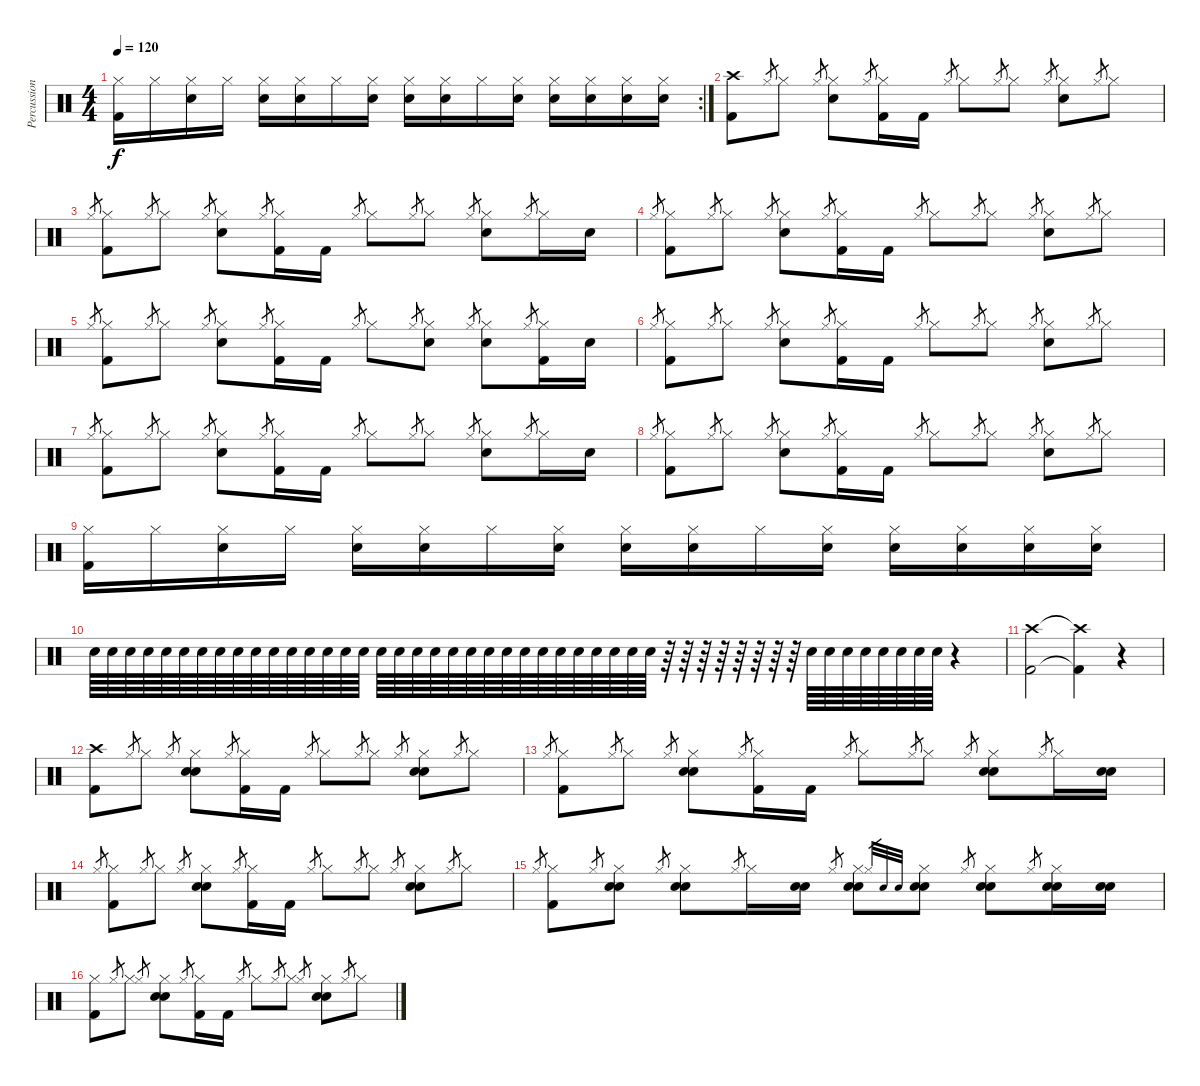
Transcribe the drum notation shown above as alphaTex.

\track ("Percussion" "Percussion") {instrument percussion}
\staff {score}
\articulation defaults
\rc 2
\ts (4 4)
\tempo 120
\clef neutral
\ks c
("Hi-Hat (closed)" "Kick (hit) 2").16{dy f} "Hi-Hat (closed)".16 ("Hi-Hat (closed)" "Snare (hit) 2").16 "Hi-Hat (closed)".16 ("Hi-Hat (closed)" "Snare (hit) 2").16 ("Hi-Hat (closed)" "Snare (hit) 2").16 "Hi-Hat (closed)".16 ("Hi-Hat (closed)" "Snare (hit) 2").16 ("Hi-Hat (closed)" "Snare (hit) 2").16 ("Hi-Hat (closed)" "Snare (hit) 2").16 "Hi-Hat (closed)".16 ("Hi-Hat (closed)" "Snare (hit) 2").16 ("Hi-Hat (closed)" "Snare (hit) 2").16 ("Hi-Hat (closed)" "Snare (hit) 2").16 ("Hi-Hat (closed)" "Snare (hit) 2").16 ("Hi-Hat (closed)" "Snare (hit) 2").16 |
("Crash high (hit)" "Kick (hit) 2").8 "Hi-Hat (closed)".8{gr} "Hi-Hat (closed)".8 "Hi-Hat (closed)".8{gr} ("Hi-Hat (closed)" "Snare (hit) 2").8 "Hi-Hat (closed)".8{gr} ("Hi-Hat (closed)" "Kick (hit) 2").16 "Kick (hit) 2".16 "Hi-Hat (closed)".8{gr} "Hi-Hat (closed)".8 "Hi-Hat (closed)".8{gr} "Hi-Hat (closed)".8 "Hi-Hat (closed)".8{gr} ("Hi-Hat (closed)" "Snare (hit) 2").8 "Hi-Hat (closed)".8{gr} "Hi-Hat (closed)".8 |
"Hi-Hat (closed)".8{gr} ("Hi-Hat (closed)" "Kick (hit) 2").8 "Hi-Hat (closed)".8{gr} "Hi-Hat (closed)".8 "Hi-Hat (closed)".8{gr} ("Hi-Hat (closed)" "Snare (hit) 2").8 "Hi-Hat (closed)".8{gr} ("Hi-Hat (closed)" "Kick (hit) 2").16 "Kick (hit) 2".16 "Hi-Hat (closed)".8{gr} "Hi-Hat (closed)".8 "Hi-Hat (closed)".8{gr} "Hi-Hat (closed)".8 "Hi-Hat (closed)".8{gr} ("Hi-Hat (closed)" "Snare (hit) 2").8 "Hi-Hat (closed)".8{gr} "Hi-Hat (closed)".16 "Snare (hit) 2".16 |
"Hi-Hat (closed)".8{gr} ("Hi-Hat (closed)" "Kick (hit) 2").8 "Hi-Hat (closed)".8{gr} "Hi-Hat (closed)".8 "Hi-Hat (closed)".8{gr} ("Hi-Hat (closed)" "Snare (hit) 2").8 "Hi-Hat (closed)".8{gr} ("Hi-Hat (closed)" "Kick (hit) 2").16 "Kick (hit) 2".16 "Hi-Hat (closed)".8{gr} "Hi-Hat (closed)".8 "Hi-Hat (closed)".8{gr} "Hi-Hat (closed)".8 "Hi-Hat (closed)".8{gr} ("Hi-Hat (closed)" "Snare (hit) 2").8 "Hi-Hat (closed)".8{gr} "Hi-Hat (closed)".8 |
"Hi-Hat (closed)".8{gr} ("Hi-Hat (closed)" "Kick (hit) 2").8 "Hi-Hat (closed)".8{gr} "Hi-Hat (closed)".8 "Hi-Hat (closed)".8{gr} ("Hi-Hat (closed)" "Snare (hit) 2").8 "Hi-Hat (closed)".8{gr} ("Hi-Hat (closed)" "Kick (hit) 2").16 "Kick (hit) 2".16 "Hi-Hat (closed)".8{gr} "Hi-Hat (closed)".8 "Hi-Hat (closed)".8{gr} ("Hi-Hat (closed)" "Snare (hit) 2").8 "Hi-Hat (closed)".8{gr} ("Hi-Hat (closed)" "Snare (hit) 2").8 "Hi-Hat (closed)".8{gr} ("Hi-Hat (closed)" "Kick (hit) 2").16 "Snare (hit) 2".16 |
"Hi-Hat (closed)".8{gr} ("Hi-Hat (closed)" "Kick (hit) 2").8 "Hi-Hat (closed)".8{gr} "Hi-Hat (closed)".8 "Hi-Hat (closed)".8{gr} ("Hi-Hat (closed)" "Snare (hit) 2").8 "Hi-Hat (closed)".8{gr} ("Hi-Hat (closed)" "Kick (hit) 2").16 "Kick (hit) 2".16 "Hi-Hat (closed)".8{gr} "Hi-Hat (closed)".8 "Hi-Hat (closed)".8{gr} "Hi-Hat (closed)".8 "Hi-Hat (closed)".8{gr} ("Hi-Hat (closed)" "Snare (hit) 2").8 "Hi-Hat (closed)".8{gr} "Hi-Hat (closed)".8 |
"Hi-Hat (closed)".8{gr} ("Hi-Hat (closed)" "Kick (hit) 2").8 "Hi-Hat (closed)".8{gr} "Hi-Hat (closed)".8 "Hi-Hat (closed)".8{gr} ("Hi-Hat (closed)" "Snare (hit) 2").8 "Hi-Hat (closed)".8{gr} ("Hi-Hat (closed)" "Kick (hit) 2").16 "Kick (hit) 2".16 "Hi-Hat (closed)".8{gr} "Hi-Hat (closed)".8 "Hi-Hat (closed)".8{gr} "Hi-Hat (closed)".8 "Hi-Hat (closed)".8{gr} ("Hi-Hat (closed)" "Snare (hit) 2").8 "Hi-Hat (closed)".8{gr} "Hi-Hat (closed)".16 "Snare (hit) 2".16 |
"Hi-Hat (closed)".8{gr} ("Hi-Hat (closed)" "Kick (hit) 2").8 "Hi-Hat (closed)".8{gr} "Hi-Hat (closed)".8 "Hi-Hat (closed)".8{gr} ("Hi-Hat (closed)" "Snare (hit) 2").8 "Hi-Hat (closed)".8{gr} ("Hi-Hat (closed)" "Kick (hit) 2").16 "Kick (hit) 2".16 "Hi-Hat (closed)".8{gr} "Hi-Hat (closed)".8 "Hi-Hat (closed)".8{gr} "Hi-Hat (closed)".8 "Hi-Hat (closed)".8{gr} ("Hi-Hat (closed)" "Snare (hit) 2").8 "Hi-Hat (closed)".8{gr} "Hi-Hat (closed)".8 |
("Hi-Hat (closed)" "Kick (hit) 2").16 "Hi-Hat (closed)".16 ("Hi-Hat (closed)" "Snare (hit) 2").16 "Hi-Hat (closed)".16 ("Hi-Hat (closed)" "Snare (hit) 2").16 ("Hi-Hat (closed)" "Snare (hit) 2").16 "Hi-Hat (closed)".16 ("Hi-Hat (closed)" "Snare (hit) 2").16 ("Hi-Hat (closed)" "Snare (hit) 2").16 ("Hi-Hat (closed)" "Snare (hit) 2").16 "Hi-Hat (closed)".16 ("Hi-Hat (closed)" "Snare (hit) 2").16 ("Hi-Hat (closed)" "Snare (hit) 2").16 ("Hi-Hat (closed)" "Snare (hit) 2").16 ("Hi-Hat (closed)" "Snare (hit) 2").16 ("Hi-Hat (closed)" "Snare (hit) 2").16 |
"Snare (hit) 2".64 "Snare (hit) 2".64 "Snare (hit) 2".64 "Snare (hit) 2".64 "Snare (hit) 2".64 "Snare (hit) 2".64 "Snare (hit) 2".64 "Snare (hit) 2".64 "Snare (hit) 2".64 "Snare (hit) 2".64 "Snare (hit) 2".64 "Snare (hit) 2".64 "Snare (hit) 2".64 "Snare (hit) 2".64 "Snare (hit) 2".64 "Snare (hit) 2".64 "Snare (hit) 2".64 "Snare (hit) 2".64 "Snare (hit) 2".64 "Snare (hit) 2".64 "Snare (hit) 2".64 "Snare (hit) 2".64 "Snare (hit) 2".64 "Snare (hit) 2".64 "Snare (hit) 2".64 "Snare (hit) 2".64 "Snare (hit) 2".64 "Snare (hit) 2".64 "Snare (hit) 2".64 "Snare (hit) 2".64 "Snare (hit) 2".64 "Snare (hit) 2".64 r.64 r.64 r.64 r.64 r.64 r.64 r.64 r.64 "Snare (hit) 2".64 "Snare (hit) 2".64 "Snare (hit) 2".64 "Snare (hit) 2".64 "Snare (hit) 2".64 "Snare (hit) 2".64 "Snare (hit) 2".64 "Snare (hit) 2".64 r.4 |
("Crash high (hit)" "Kick (hit) 2").2 ("Crash high (hit)"{t} "Kick (hit) 2"{t}).4 r.4 |
("Crash high (hit)" "Kick (hit) 2").8 "Hi-Hat (closed)".8{gr} "Hi-Hat (closed)".8 "Hi-Hat (closed)".8{gr} ("Hi-Hat (closed)" "Electric Snare (hit)" "Electric Snare (hit)").8 "Hi-Hat (closed)".8{gr} ("Hi-Hat (closed)" "Kick (hit) 2").16 "Kick (hit) 2".16 "Hi-Hat (closed)".8{gr} "Hi-Hat (closed)".8 "Hi-Hat (closed)".8{gr} "Hi-Hat (closed)".8 "Hi-Hat (closed)".8{gr} ("Hi-Hat (closed)" "Electric Snare (hit)" "Electric Snare (hit)").8 "Hi-Hat (closed)".8{gr} "Hi-Hat (closed)".8 |
"Hi-Hat (closed)".8{gr} ("Hi-Hat (closed)" "Kick (hit) 2").8 "Hi-Hat (closed)".8{gr} "Hi-Hat (closed)".8 "Hi-Hat (closed)".8{gr} ("Hi-Hat (closed)" "Electric Snare (hit)" "Electric Snare (hit)").8 "Hi-Hat (closed)".8{gr} ("Hi-Hat (closed)" "Kick (hit) 2").16 "Kick (hit) 2".16 "Hi-Hat (closed)".8{gr} "Hi-Hat (closed)".8 "Hi-Hat (closed)".8{gr} "Hi-Hat (closed)".8 "Hi-Hat (closed)".8{gr} ("Hi-Hat (closed)" "Electric Snare (hit)" "Electric Snare (hit)").8 "Hi-Hat (closed)".8{gr} "Hi-Hat (closed)".16 ("Electric Snare (hit)" "Electric Snare (hit)").16 |
"Hi-Hat (closed)".8{gr} ("Hi-Hat (closed)" "Kick (hit) 2").8 "Hi-Hat (closed)".8{gr} "Hi-Hat (closed)".8 "Hi-Hat (closed)".8{gr} ("Hi-Hat (closed)" "Electric Snare (hit)" "Electric Snare (hit)").8 "Hi-Hat (closed)".8{gr} ("Hi-Hat (closed)" "Kick (hit) 2").16 "Kick (hit) 2".16 "Hi-Hat (closed)".8{gr} "Hi-Hat (closed)".8 "Hi-Hat (closed)".8{gr} "Hi-Hat (closed)".8 "Hi-Hat (closed)".8{gr} ("Hi-Hat (closed)" "Electric Snare (hit)" "Electric Snare (hit)").8 "Hi-Hat (closed)".8{gr} "Hi-Hat (closed)".8 |
"Hi-Hat (closed)".8{gr} ("Hi-Hat (closed)" "Kick (hit) 2").8 "Hi-Hat (closed)".8{gr} ("Hi-Hat (closed)" "Electric Snare (hit)" "Electric Snare (hit)").8 "Hi-Hat (closed)".8{gr} ("Hi-Hat (closed)" "Electric Snare (hit)" "Electric Snare (hit)").8 "Hi-Hat (closed)".8{gr} "Hi-Hat (closed)".16 ("Electric Snare (hit)" "Electric Snare (hit)").16 "Hi-Hat (closed)".8{gr} ("Hi-Hat (closed)" "Electric Snare (hit)" "Electric Snare (hit)").8 "Hi-Hat (closed)".32{gr} "Electric Snare (hit)".32{gr} "Electric Snare (hit)".32{gr} ("Hi-Hat (closed)" "Electric Snare (hit)" "Electric Snare (hit)").8 "Hi-Hat (closed)".8{gr} ("Hi-Hat (closed)" "Electric Snare (hit)" "Electric Snare (hit)").8 "Hi-Hat (closed)".8{gr} ("Hi-Hat (closed)" "Electric Snare (hit)" "Electric Snare (hit)").16 ("Electric Snare (hit)" "Electric Snare (hit)").16 |
("Hi-Hat (closed)" "Kick (hit) 2").8 "Hi-Hat (closed)".8{gr} "Hi-Hat (closed)".8 "Hi-Hat (closed)".8{gr} ("Hi-Hat (closed)" "Electric Snare (hit)" "Electric Snare (hit)").8 "Hi-Hat (closed)".8{gr} ("Hi-Hat (closed)" "Kick (hit) 2").16 "Kick (hit) 2".16 "Hi-Hat (closed)".8{gr} "Hi-Hat (closed)".8 "Hi-Hat (closed)".8{gr} "Hi-Hat (closed)".8 "Hi-Hat (closed)".8{gr} ("Hi-Hat (closed)" "Electric Snare (hit)" "Electric Snare (hit)").8 "Hi-Hat (closed)".8{gr} "Hi-Hat (closed)".8
